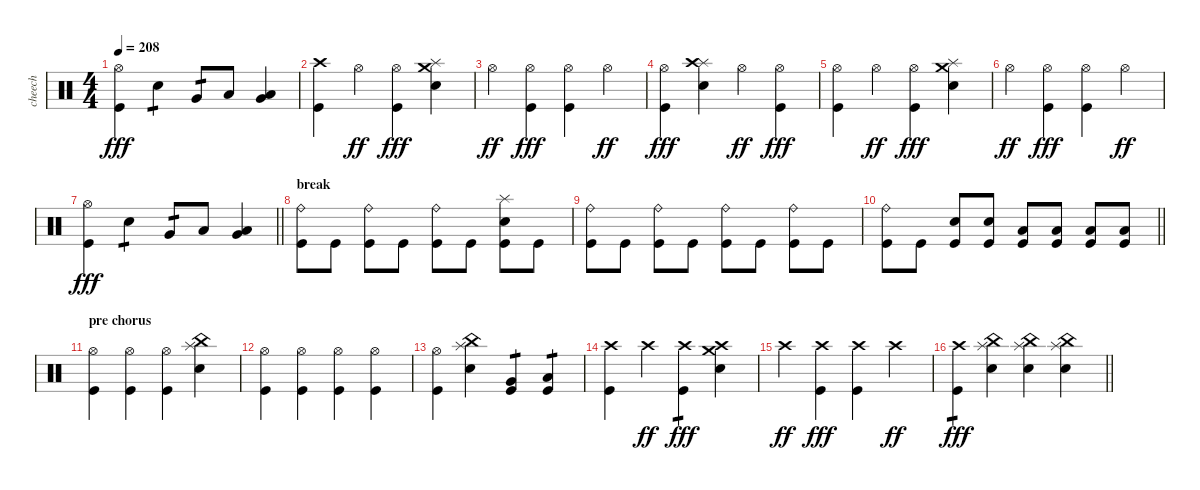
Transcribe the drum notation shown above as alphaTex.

\track ("cheech" "cheech") {instrument percussion}
\staff {score}
\articulation defaults
\ts (4 4)
\tempo 208
\clef neutral
\ks c
("Hi-Hat (open)" "Kick (hit)").4{dy fff} "Electric Snare (hit)".4{tp 1} "Very Low Tom (hit)".8{tp 1} "Low Tom (hit)".8 ("Very Low Tom (hit)" "Low Floor Tom (hit)").4 |
("Crash high (hit)" "Kick (hit)").4 "Hi-Hat (open)".4{dy ff} ("Hi-Hat (open)" "Kick (hit)").4{dy fff} ("Splash (hit)" "Crash medium (hit)" "Electric Snare (hit)").4 |
"Hi-Hat (open)".4{dy ff} ("Hi-Hat (open)" "Kick (hit)").4{dy fff} ("Hi-Hat (open)" "Kick (hit)").4 "Hi-Hat (open)".4{dy ff} |
("Hi-Hat (open)" "Kick (hit)").4{dy fff} ("Splash (hit)" "Crash high (hit)" "Electric Snare (hit)").4 "Hi-Hat (open)".4{dy ff} ("Hi-Hat (open)" "Kick (hit)").4{dy fff} |
("Hi-Hat (open)" "Kick (hit)").4 "Hi-Hat (open)".4{dy ff} ("Hi-Hat (open)" "Kick (hit)").4{dy fff} ("Splash (hit)" "Crash medium (hit)" "Electric Snare (hit)").4 |
"Hi-Hat (open)".4{dy ff} ("Hi-Hat (open)" "Kick (hit)").4{dy fff} ("Hi-Hat (open)" "Kick (hit)").4 "Hi-Hat (open)".4{dy ff} |
\barLineRight lightlight
("Hi-Hat (open)" "Kick (hit)").4{dy fff} "Electric Snare (hit)".4{tp 1} "Very Low Tom (hit)".8{tp 1} "Low Tom (hit)".8 ("Very Low Tom (hit)" "Low Floor Tom (hit)").4 |
\section ("" "break")
("Ride (bell)" "Kick (hit)").8 "Kick (hit)".8 ("Ride (bell)" "Kick (hit)").8 "Kick (hit)".8 ("Ride (bell)" "Kick (hit)").8 "Kick (hit)".8 ("Splash (hit)" "Electric Snare (hit)" "Kick (hit)").8 "Kick (hit)".8 |
("Ride (bell)" "Kick (hit)").8 "Kick (hit)".8 ("Ride (bell)" "Kick (hit)").8 "Kick (hit)".8 ("Ride (bell)" "Kick (hit)").8 "Kick (hit)".8 ("Ride (bell)" "Kick (hit)").8 "Kick (hit)".8 |
\barLineRight lightlight
("Ride (bell)" "Kick (hit)").8 "Kick (hit)".8 ("Electric Snare (hit)" "Kick (hit)").8 ("Electric Snare (hit)" "Kick (hit)").8 ("Low Tom (hit)" "Kick (hit)").8 ("Low Tom (hit)" "Kick (hit)").8 ("Low Floor Tom (hit)" "Kick (hit)").8 ("Low Floor Tom (hit)" "Kick (hit)").8 |
\section ("" "pre chorus")
("Hi-Hat (open)" "Kick (hit)").4 ("Hi-Hat (open)" "Kick (hit)").4 ("Hi-Hat (open)" "Kick (hit)").4 ("Splash (hit)" "China (hit)" "Electric Snare (hit)").4 |
("Hi-Hat (open)" "Kick (hit)").4 ("Hi-Hat (open)" "Kick (hit)").4 ("Hi-Hat (open)" "Kick (hit)").4 ("Hi-Hat (open)" "Kick (hit)").4 |
("Hi-Hat (open)" "Kick (hit)").4 ("Splash (hit)" "China (hit)" "Electric Snare (hit)").4 ("Very Low Tom (hit)" "Kick (hit)").4{tp 1} ("Low Floor Tom (hit)" "Kick (hit)").4{tp 1} |
("Crash high (hit)" "Kick (hit)").4 "Crash high (hit)".4{dy ff} ("Crash high (hit)" "Kick (hit)").4{tp 1 dy fff} ("Crash medium (hit)" "Crash high (hit)" "Electric Snare (hit)").4 |
"Crash high (hit)".4{dy ff} ("Crash high (hit)" "Kick (hit)").4{dy fff} ("Crash high (hit)" "Kick (hit)").4 "Crash high (hit)".4{dy ff} |
\barLineRight lightlight
("Crash high (hit)" "Kick (hit)").4{tp 1 dy fff} ("Splash (hit)" "China (hit)" "Electric Snare (hit)").4 ("Splash (hit)" "China (hit)" "Electric Snare (hit)").4 ("Splash (hit)" "China (hit)" "Electric Snare (hit)").4
